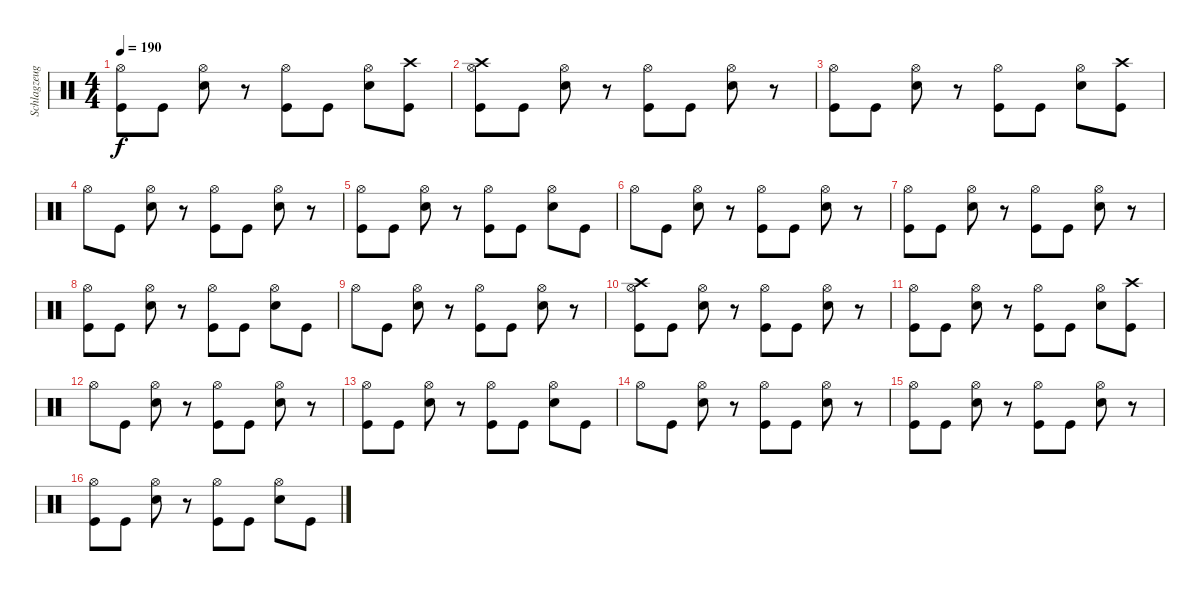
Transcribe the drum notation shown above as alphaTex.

\track ("Schlagzeug" "Schlagzeug") {instrument percussion}
\staff {score}
\articulation defaults
\ts (4 4)
\tempo 190
\clef neutral
\ks c
("Kick (hit)" "Hi-Hat (open)").8{dy f} "Kick (hit)".8 ("Electric Snare (hit)" "Hi-Hat (open)").8 r.8 ("Kick (hit)" "Hi-Hat (open)").8 "Kick (hit)".8 ("Electric Snare (hit)" "Hi-Hat (open)").8 ("Kick (hit)" "Crash high (hit)").8 |
("Crash high (hit)" "Kick (hit)" "Hi-Hat (open)").8 "Kick (hit)".8 ("Electric Snare (hit)" "Hi-Hat (open)").8 r.8 ("Kick (hit)" "Hi-Hat (open)").8 "Kick (hit)".8 ("Electric Snare (hit)" "Hi-Hat (open)").8 r.8 |
("Kick (hit)" "Hi-Hat (open)").8 "Kick (hit)".8 ("Electric Snare (hit)" "Hi-Hat (open)").8 r.8 ("Kick (hit)" "Hi-Hat (open)").8 "Kick (hit)".8 ("Electric Snare (hit)" "Hi-Hat (open)").8 ("Kick (hit)" "Crash high (hit)").8 |
"Hi-Hat (open)".8 "Kick (hit)".8 ("Electric Snare (hit)" "Hi-Hat (open)").8 r.8 ("Kick (hit)" "Hi-Hat (open)").8 "Kick (hit)".8 ("Electric Snare (hit)" "Hi-Hat (open)").8 r.8 |
("Kick (hit)" "Hi-Hat (open)").8 "Kick (hit)".8 ("Electric Snare (hit)" "Hi-Hat (open)").8 r.8 ("Kick (hit)" "Hi-Hat (open)").8 "Kick (hit)".8 ("Electric Snare (hit)" "Hi-Hat (open)").8 "Kick (hit)".8 |
"Hi-Hat (open)".8 "Kick (hit)".8 ("Electric Snare (hit)" "Hi-Hat (open)").8 r.8 ("Kick (hit)" "Hi-Hat (open)").8 "Kick (hit)".8 ("Electric Snare (hit)" "Hi-Hat (open)").8 r.8 |
("Kick (hit)" "Hi-Hat (open)").8 "Kick (hit)".8 ("Electric Snare (hit)" "Hi-Hat (open)").8 r.8 ("Kick (hit)" "Hi-Hat (open)").8 "Kick (hit)".8 ("Electric Snare (hit)" "Hi-Hat (open)").8 r.8 |
("Kick (hit)" "Hi-Hat (open)").8 "Kick (hit)".8 ("Electric Snare (hit)" "Hi-Hat (open)").8 r.8 ("Kick (hit)" "Hi-Hat (open)").8 "Kick (hit)".8 ("Electric Snare (hit)" "Hi-Hat (open)").8 "Kick (hit)".8 |
"Hi-Hat (open)".8 "Kick (hit)".8 ("Electric Snare (hit)" "Hi-Hat (open)").8 r.8 ("Kick (hit)" "Hi-Hat (open)").8 "Kick (hit)".8 ("Electric Snare (hit)" "Hi-Hat (open)").8 r.8 |
("Crash high (hit)" "Kick (hit)" "Hi-Hat (open)").8 "Kick (hit)".8 ("Electric Snare (hit)" "Hi-Hat (open)").8 r.8 ("Kick (hit)" "Hi-Hat (open)").8 "Kick (hit)".8 ("Electric Snare (hit)" "Hi-Hat (open)").8 r.8 |
("Kick (hit)" "Hi-Hat (open)").8 "Kick (hit)".8 ("Electric Snare (hit)" "Hi-Hat (open)").8 r.8 ("Kick (hit)" "Hi-Hat (open)").8 "Kick (hit)".8 ("Electric Snare (hit)" "Hi-Hat (open)").8 ("Kick (hit)" "Crash high (hit)").8 |
"Hi-Hat (open)".8 "Kick (hit)".8 ("Electric Snare (hit)" "Hi-Hat (open)").8 r.8 ("Kick (hit)" "Hi-Hat (open)").8 "Kick (hit)".8 ("Electric Snare (hit)" "Hi-Hat (open)").8 r.8 |
("Kick (hit)" "Hi-Hat (open)").8 "Kick (hit)".8 ("Electric Snare (hit)" "Hi-Hat (open)").8 r.8 ("Kick (hit)" "Hi-Hat (open)").8 "Kick (hit)".8 ("Electric Snare (hit)" "Hi-Hat (open)").8 "Kick (hit)".8 |
"Hi-Hat (open)".8 "Kick (hit)".8 ("Electric Snare (hit)" "Hi-Hat (open)").8 r.8 ("Kick (hit)" "Hi-Hat (open)").8 "Kick (hit)".8 ("Electric Snare (hit)" "Hi-Hat (open)").8 r.8 |
("Kick (hit)" "Hi-Hat (open)").8 "Kick (hit)".8 ("Electric Snare (hit)" "Hi-Hat (open)").8 r.8 ("Kick (hit)" "Hi-Hat (open)").8 "Kick (hit)".8 ("Electric Snare (hit)" "Hi-Hat (open)").8 r.8 |
("Kick (hit)" "Hi-Hat (open)").8 "Kick (hit)".8 ("Electric Snare (hit)" "Hi-Hat (open)").8 r.8 ("Kick (hit)" "Hi-Hat (open)").8 "Kick (hit)".8 ("Electric Snare (hit)" "Hi-Hat (open)").8 "Kick (hit)".8
